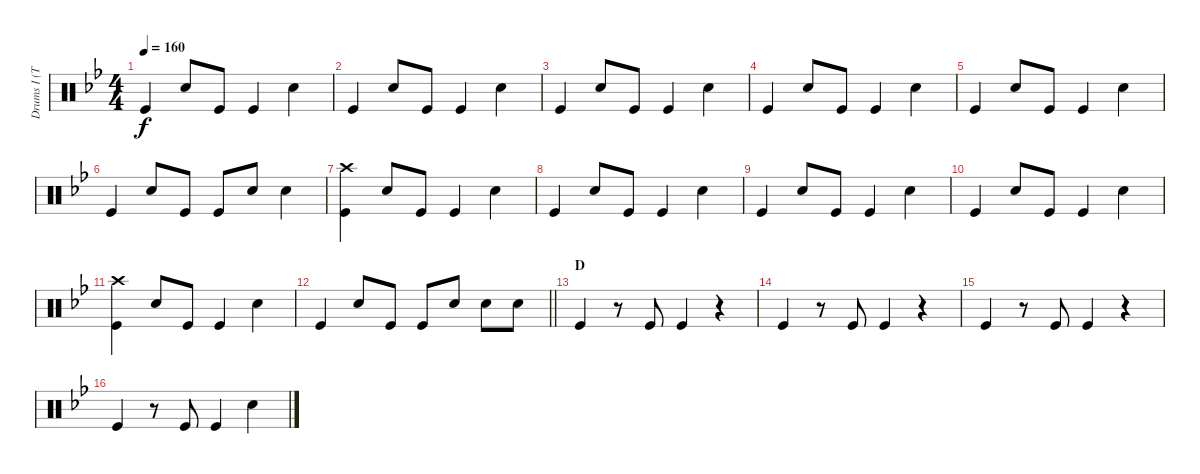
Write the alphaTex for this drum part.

\track ("Drums I (Tainaka Ritsu)" "Drums I (T") {instrument percussion}
\staff {score}
\articulation defaults
\ts (4 4)
\tempo 160
\clef neutral
\ks bb "Kick (hit)".4{dy f} "Snare (hit) 2".8 "Kick (hit)".8 "Kick (hit)".4 "Snare (hit) 2".4
|
"Kick (hit)".4 "Snare (hit) 2".8 "Kick (hit)".8 "Kick (hit)".4 "Snare (hit) 2".4 |
"Kick (hit)".4 "Snare (hit) 2".8 "Kick (hit)".8 "Kick (hit)".4 "Snare (hit) 2".4 |
"Kick (hit)".4 "Snare (hit) 2".8 "Kick (hit)".8 "Kick (hit)".4 "Snare (hit) 2".4 |
"Kick (hit)".4 "Snare (hit) 2".8 "Kick (hit)".8 "Kick (hit)".4 "Snare (hit) 2".4 |
"Kick (hit)".4 "Snare (hit) 2".8 "Kick (hit)".8 "Kick (hit)".8 "Snare (hit) 2".8 "Snare (hit) 2".4 |
("Crash high (hit)" "Kick (hit)").4 "Snare (hit) 2".8 "Kick (hit)".8 "Kick (hit)".4 "Snare (hit) 2".4 |
"Kick (hit)".4 "Snare (hit) 2".8 "Kick (hit)".8 "Kick (hit)".4 "Snare (hit) 2".4 |
"Kick (hit)".4 "Snare (hit) 2".8 "Kick (hit)".8 "Kick (hit)".4 "Snare (hit) 2".4 |
"Kick (hit)".4 "Snare (hit) 2".8 "Kick (hit)".8 "Kick (hit)".4 "Snare (hit) 2".4 |
("Crash high (hit)" "Kick (hit)").4 "Snare (hit) 2".8 "Kick (hit)".8 "Kick (hit)".4 "Snare (hit) 2".4 |
\barLineRight lightlight "Kick (hit)".4 "Snare (hit) 2".8 "Kick (hit)".8 "Kick (hit)".8 "Snare (hit) 2".8 "Snare (hit) 2".8 "Snare (hit) 2".8
|
\section ("" "D")
"Kick (hit)".4 r.8 "Kick (hit)".8 "Kick (hit)".4 r.4 |
"Kick (hit)".4 r.8 "Kick (hit)".8 "Kick (hit)".4 r.4 |
"Kick (hit)".4 r.8 "Kick (hit)".8 "Kick (hit)".4 r.4 |
"Kick (hit)".4 r.8 "Kick (hit)".8 "Kick (hit)".4 "Snare (hit) 2".4
